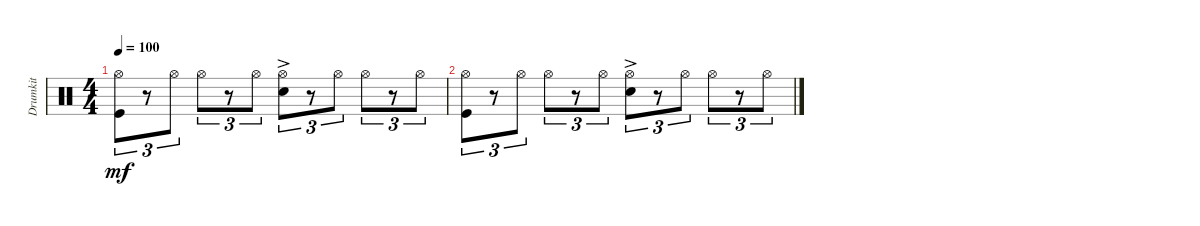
\track ("Drumkit" "Drumkit") {instrument percussion}
\staff {score}
\articulation defaults
\ts (4 4)
\tempo 100
\clef neutral
\ks c
("Kick (hit)" "Hi-Hat (open)").8{tu (3 2) dy mf} r.8{tu (3 2)} "Hi-Hat (open)".8{tu (3 2)} "Hi-Hat (open)".8{tu (3 2)} r.8{tu (3 2)} "Hi-Hat (open)".8{tu (3 2)} ("Hi-Hat (open)" "Snare (hit) 2"{ac}).8{tu (3 2)} r.8{tu (3 2)} "Hi-Hat (open)".8{tu (3 2)} "Hi-Hat (open)".8{tu (3 2)} r.8{tu (3 2)} "Hi-Hat (open)".8{tu (3 2)} |
("Kick (hit)" "Hi-Hat (open)").8{tu (3 2)} r.8{tu (3 2)} "Hi-Hat (open)".8{tu (3 2)} "Hi-Hat (open)".8{tu (3 2)} r.8{tu (3 2)} "Hi-Hat (open)".8{tu (3 2)} ("Hi-Hat (open)" "Snare (hit) 2"{ac}).8{tu (3 2)} r.8{tu (3 2)} "Hi-Hat (open)".8{tu (3 2)} "Hi-Hat (open)".8{tu (3 2)} r.8{tu (3 2)} "Hi-Hat (open)".8{tu (3 2)}
